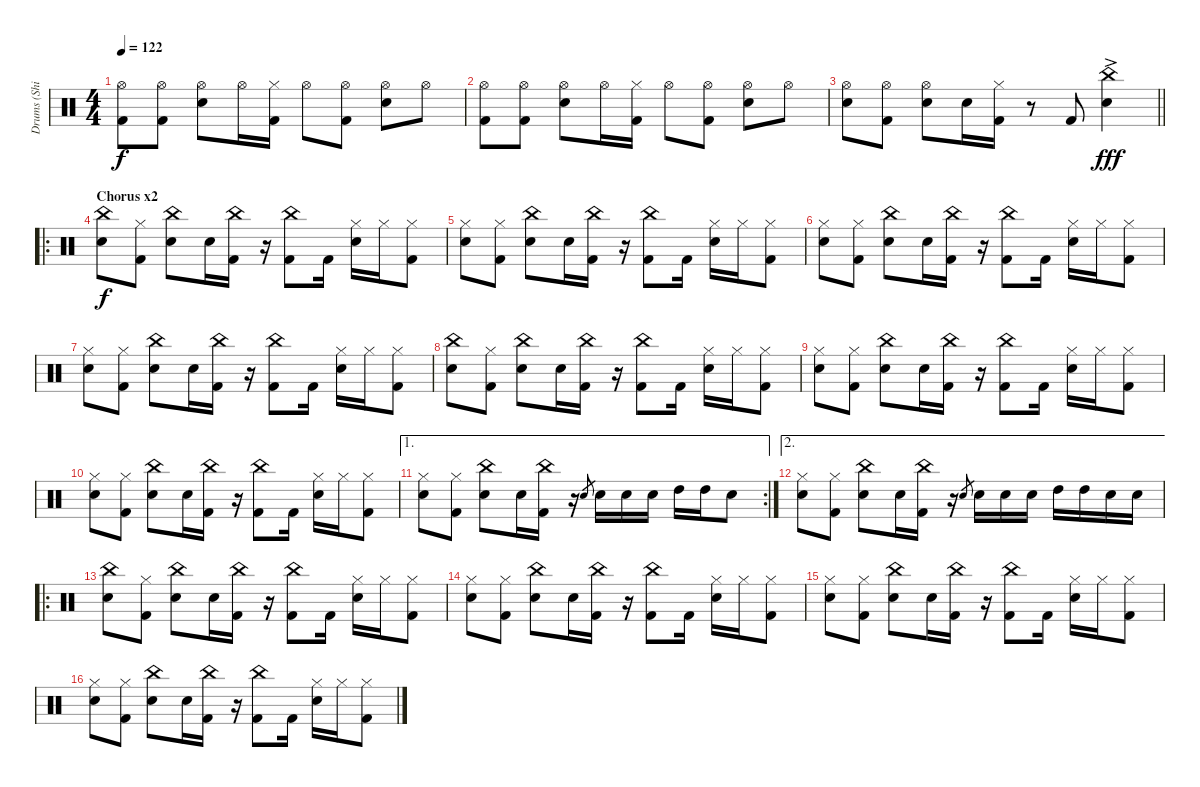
\track ("Drums (Shinya)" "Drums (Shi") {instrument percussion}
\staff {score}
\articulation defaults
\ts (4 4)
\tempo 122
\clef neutral
\ks c
("Hi-Hat (open)" "Kick (hit) 2").8{dy f} ("Hi-Hat (open)" "Kick (hit) 2").8 ("Snare (hit) 2" "Hi-Hat (open)").8 "Hi-Hat (open)".16 ("Hi-Hat (closed)" "Kick (hit) 2").16 "Hi-Hat (open)".8 ("Hi-Hat (open)" "Kick (hit) 2").8 ("Snare (hit) 2" "Hi-Hat (open)").8 "Hi-Hat (open)".8 |
("Hi-Hat (open)" "Kick (hit) 2").8 ("Hi-Hat (open)" "Kick (hit) 2").8 ("Snare (hit) 2" "Hi-Hat (open)").8 "Hi-Hat (open)".16 ("Hi-Hat (closed)" "Kick (hit) 2").16 "Hi-Hat (open)".8 ("Hi-Hat (open)" "Kick (hit) 2").8 ("Snare (hit) 2" "Hi-Hat (open)").8 "Hi-Hat (open)".8 |
\barLineRight lightlight
("Snare (hit) 2" "Hi-Hat (open)").8 ("Hi-Hat (open)" "Kick (hit) 2").8 ("Snare (hit) 2" "Hi-Hat (open)").8 "Snare (hit) 2".16 ("Hi-Hat (closed)" "Kick (hit) 2").16 r.8 "Kick (hit) 2".8 ("Snare (hit) 2"{ac} "China (hit)").4{dy fff} |
\ro
\section ("" "Chorus x2")
("Snare (hit) 2" "China (hit)").8{dy f} ("Hi-Hat (closed)" "Kick (hit) 2").8 ("Snare (hit) 2" "China (hit)").8 "Snare (hit) 2".16 ("China (hit)" "Kick (hit) 2").16 r.16 ("China (hit)" "Kick (hit) 2").8 "Kick (hit) 2".16 ("Snare (hit) 2" "Hi-Hat (closed)").16 "Hi-Hat (closed)".16 ("Hi-Hat (closed)" "Kick (hit) 2").8 |
("Snare (hit) 2" "Hi-Hat (closed)").8 ("Hi-Hat (closed)" "Kick (hit) 2").8 ("Snare (hit) 2" "China (hit)").8 "Snare (hit) 2".16 ("China (hit)" "Kick (hit) 2").16 r.16 ("China (hit)" "Kick (hit) 2").8 "Kick (hit) 2".16 ("Snare (hit) 2" "Hi-Hat (closed)").16 "Hi-Hat (closed)".16 ("Hi-Hat (closed)" "Kick (hit) 2").8 |
("Snare (hit) 2" "Hi-Hat (closed)").8 ("Hi-Hat (closed)" "Kick (hit) 2").8 ("Snare (hit) 2" "China (hit)").8 "Snare (hit) 2".16 ("China (hit)" "Kick (hit) 2").16 r.16 ("China (hit)" "Kick (hit) 2").8 "Kick (hit) 2".16 ("Snare (hit) 2" "Hi-Hat (closed)").16 "Hi-Hat (closed)".16 ("Hi-Hat (closed)" "Kick (hit) 2").8 |
("Snare (hit) 2" "Hi-Hat (closed)").8 ("Hi-Hat (closed)" "Kick (hit) 2").8 ("Snare (hit) 2" "China (hit)").8 "Snare (hit) 2".16 ("China (hit)" "Kick (hit) 2").16 r.16 ("China (hit)" "Kick (hit) 2").8 "Kick (hit) 2".16 ("Snare (hit) 2" "Hi-Hat (closed)").16 "Hi-Hat (closed)".16 ("Hi-Hat (closed)" "Kick (hit) 2").8 |
("Snare (hit) 2" "China (hit)").8 ("Hi-Hat (closed)" "Kick (hit) 2").8 ("Snare (hit) 2" "China (hit)").8 "Snare (hit) 2".16 ("China (hit)" "Kick (hit) 2").16 r.16 ("China (hit)" "Kick (hit) 2").8 "Kick (hit) 2".16 ("Snare (hit) 2" "Hi-Hat (closed)").16 "Hi-Hat (closed)".16 ("Hi-Hat (closed)" "Kick (hit) 2").8 |
("Snare (hit) 2" "Hi-Hat (closed)").8 ("Hi-Hat (closed)" "Kick (hit) 2").8 ("Snare (hit) 2" "China (hit)").8 "Snare (hit) 2".16 ("China (hit)" "Kick (hit) 2").16 r.16 ("China (hit)" "Kick (hit) 2").8 "Kick (hit) 2".16 ("Snare (hit) 2" "Hi-Hat (closed)").16 "Hi-Hat (closed)".16 ("Hi-Hat (closed)" "Kick (hit) 2").8 |
("Snare (hit) 2" "Hi-Hat (closed)").8 ("Hi-Hat (closed)" "Kick (hit) 2").8 ("Snare (hit) 2" "China (hit)").8 "Snare (hit) 2".16 ("China (hit)" "Kick (hit) 2").16 r.16 ("China (hit)" "Kick (hit) 2").8 "Kick (hit) 2".16 ("Snare (hit) 2" "Hi-Hat (closed)").16 "Hi-Hat (closed)".16 ("Hi-Hat (closed)" "Kick (hit) 2").8 |
\ae 1
\rc 2
("Snare (hit) 2" "Hi-Hat (closed)").8 ("Hi-Hat (closed)" "Kick (hit) 2").8 ("Snare (hit) 2" "China (hit)").8 "Snare (hit) 2".16 ("China (hit)" "Kick (hit) 2").16 r.16 "Snare (hit) 2".8{gr} "Snare (hit) 2".16 "Snare (hit) 2".16 "Snare (hit) 2".16 "High Tom (hit)".16 "High Tom (hit)".16 "Snare (hit) 2".8 |
\ae 2
("Snare (hit) 2" "Hi-Hat (closed)").8 ("Hi-Hat (closed)" "Kick (hit) 2").8 ("Snare (hit) 2" "China (hit)").8 "Snare (hit) 2".16 ("China (hit)" "Kick (hit) 2").16 r.16 "Snare (hit) 2".8{gr} "Snare (hit) 2".16 "Snare (hit) 2".16 "Snare (hit) 2".16 "High Tom (hit)".16 "High Tom (hit)".16 "Snare (hit) 2".16 "Snare (hit) 2".16 |
\ro
("Snare (hit) 2" "China (hit)").8 ("Hi-Hat (closed)" "Kick (hit) 2").8 ("Snare (hit) 2" "China (hit)").8 "Snare (hit) 2".16 ("China (hit)" "Kick (hit) 2").16 r.16 ("China (hit)" "Kick (hit) 2").8 "Kick (hit) 2".16 ("Snare (hit) 2" "Hi-Hat (closed)").16 "Hi-Hat (closed)".16 ("Hi-Hat (closed)" "Kick (hit) 2").8 |
("Snare (hit) 2" "Hi-Hat (closed)").8 ("Hi-Hat (closed)" "Kick (hit) 2").8 ("Snare (hit) 2" "China (hit)").8 "Snare (hit) 2".16 ("China (hit)" "Kick (hit) 2").16 r.16 ("China (hit)" "Kick (hit) 2").8 "Kick (hit) 2".16 ("Snare (hit) 2" "Hi-Hat (closed)").16 "Hi-Hat (closed)".16 ("Hi-Hat (closed)" "Kick (hit) 2").8 |
("Snare (hit) 2" "Hi-Hat (closed)").8 ("Hi-Hat (closed)" "Kick (hit) 2").8 ("Snare (hit) 2" "China (hit)").8 "Snare (hit) 2".16 ("China (hit)" "Kick (hit) 2").16 r.16 ("China (hit)" "Kick (hit) 2").8 "Kick (hit) 2".16 ("Snare (hit) 2" "Hi-Hat (closed)").16 "Hi-Hat (closed)".16 ("Hi-Hat (closed)" "Kick (hit) 2").8 |
("Snare (hit) 2" "Hi-Hat (closed)").8 ("Hi-Hat (closed)" "Kick (hit) 2").8 ("Snare (hit) 2" "China (hit)").8 "Snare (hit) 2".16 ("China (hit)" "Kick (hit) 2").16 r.16 ("China (hit)" "Kick (hit) 2").8 "Kick (hit) 2".16 ("Snare (hit) 2" "Hi-Hat (closed)").16 "Hi-Hat (closed)".16 ("Hi-Hat (closed)" "Kick (hit) 2").8
